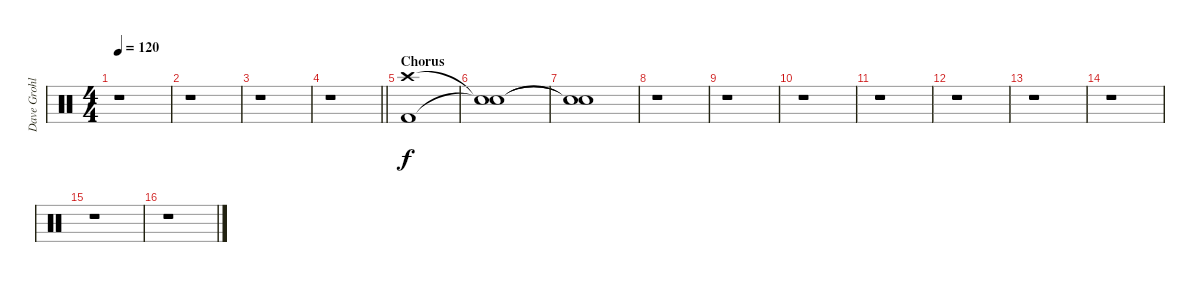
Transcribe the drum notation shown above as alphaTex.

\track ("Dave Grohl - Drums" "Dave Grohl") {instrument percussion}
\staff {score}
\articulation defaults
\ts (4 4)
\tempo 120
\clef neutral
\ks c
r.1{dy f} |
r.1 |
r.1 |
\barLineRight lightlight
r.1 |
\section ("" "Chorus")
("Kick (hit) 2" "Crash high (hit)").1 |
("Snare (hit)"{t} "Snare (hit)"{t}).1 |
("Snare (hit)"{t} "Snare (hit)"{t}).1 |
r.1 |
r.1 |
r.1 |
r.1 |
r.1 |
r.1 |
r.1 |
r.1 |
r.1
